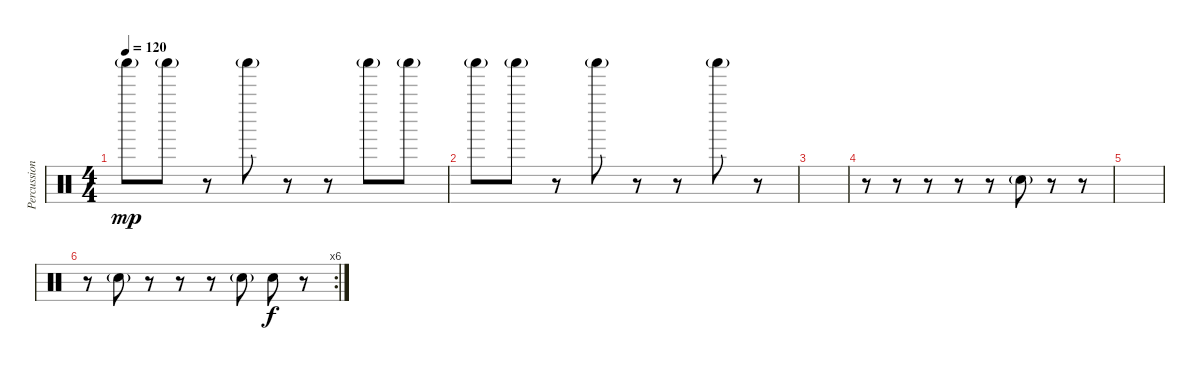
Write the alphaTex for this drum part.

\track ("Percussion" "Percussion") {instrument percussion}
\staff {score}
\articulation defaults
\ts (4 4)
\tempo 120
\clef neutral
\ks c "Shaker (hit)"{g}.8{dy mp} "Shaker (hit)"{g}.8
r.8 "Shaker (hit)"{g}.8 r.8 r.8 "Shaker (hit)"{g}.8 "Shaker (hit)"{g}.8 |
"Shaker (hit)"{g}.8 "Shaker (hit)"{g}.8 r.8 "Shaker (hit)"{g}.8 r.8 r.8 "Shaker (hit)"{g}.8 r.8 |
|
r.8 r.8 r.8 r.8 r.8 "Snare (hit) 2"{g}.8 r.8 r.8 |
|
\rc 6
r.8 "Snare (hit) 2"{g}.8 r.8 r.8 r.8 "Snare (hit) 2"{g}.8 "Snare (hit) 2".8{dy f} r.8
